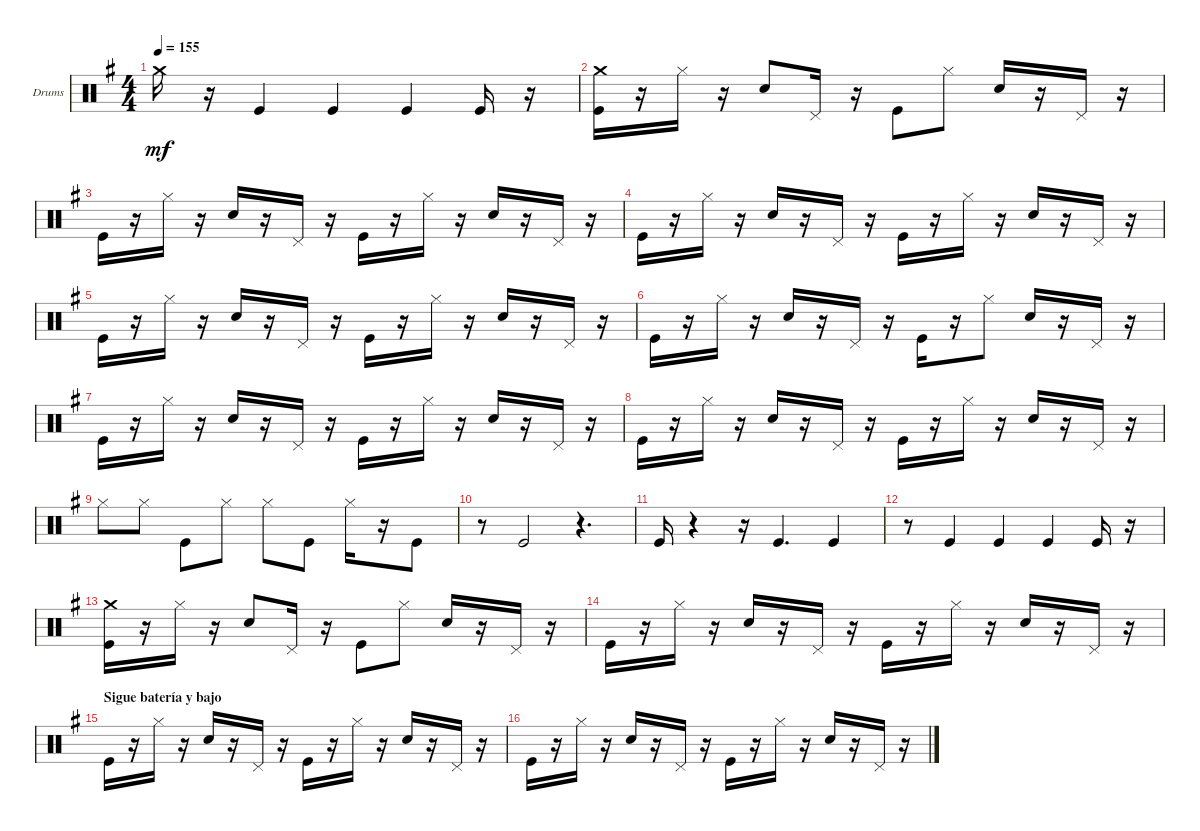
\bracketExtendMode groupsimilarinstruments
\firstSystemTrackNameOrientation horizontal
\otherSystemsTrackNameOrientation horizontal
\track ("Drumkit" "Drums") {instrument percussion}
\staff {score}
\articulation defaults
\ts (4 4)
\tempo 155
\clef neutral
\scale
0.333333
\ks g "Crash medium (hit)".16{dy mf}
r.16 "Kick (hit)".4 "Kick (hit)".4 "Kick (hit)".4 "Kick (hit)".16 r.16 |
\scale
0.333333 ("Crash medium (hit)" "Kick (hit)").16 r.16 "Hi-Hat (closed)".16 r.16 "Snare (hit) 2".8 "Pedal Hi-Hat (hit)".16 r.16 "Kick (hit)".8 "Hi-Hat (closed)".8 "Snare (hit) 2".16 r.16 "Pedal Hi-Hat (hit)".16 r.16 |
\scale
0.333333 "Kick (hit)".16 r.16 "Hi-Hat (closed)".16 r.16 "Snare (hit) 2".16 r.16 "Pedal Hi-Hat (hit)".16 r.16 "Kick (hit)".16 r.16 "Hi-Hat (closed)".16 r.16 "Snare (hit) 2".16 r.16 "Pedal Hi-Hat (hit)".16 r.16 |
\scale
0.333333 "Kick (hit)".16 r.16 "Hi-Hat (closed)".16 r.16 "Snare (hit) 2".16 r.16 "Pedal Hi-Hat (hit)".16 r.16 "Kick (hit)".16 r.16 "Hi-Hat (closed)".16 r.16 "Snare (hit) 2".16 r.16 "Pedal Hi-Hat (hit)".16 r.16 |
\scale
0.333333 "Kick (hit)".16 r.16 "Hi-Hat (closed)".16 r.16 "Snare (hit) 2".16 r.16 "Pedal Hi-Hat (hit)".16 r.16 "Kick (hit)".16 r.16 "Hi-Hat (closed)".16 r.16 "Snare (hit) 2".16 r.16 "Pedal Hi-Hat (hit)".16 r.16 |
\scale
0.333333 "Kick (hit)".16 r.16 "Hi-Hat (closed)".16 r.16 "Snare (hit) 2".16 r.16 "Pedal Hi-Hat (hit)".16 r.16 "Kick (hit)".16 r.16 "Hi-Hat (closed)".8 "Snare (hit) 2".16 r.16 "Pedal Hi-Hat (hit)".16 r.16 |
\scale
0.333333 "Kick (hit)".16 r.16 "Hi-Hat (closed)".16 r.16 "Snare (hit) 2".16 r.16 "Pedal Hi-Hat (hit)".16 r.16 "Kick (hit)".16 r.16 "Hi-Hat (closed)".16 r.16 "Snare (hit) 2".16 r.16 "Pedal Hi-Hat (hit)".16 r.16 |
\scale
0.333333 "Kick (hit)".16 r.16 "Hi-Hat (closed)".16 r.16 "Snare (hit) 2".16 r.16 "Pedal Hi-Hat (hit)".16 r.16 "Kick (hit)".16 r.16 "Hi-Hat (closed)".16 r.16 "Snare (hit) 2".16 r.16 "Pedal Hi-Hat (hit)".16 r.16 |
\scale
0.333333 "Hi-Hat (closed)".8 "Hi-Hat (closed)".8 "Kick (hit)".8 "Hi-Hat (closed)".8 "Hi-Hat (closed)".8 "Kick (hit)".8 "Hi-Hat (closed)".16 r.16 "Kick (hit)".8 |
\scale
0.333333 r.8 "Kick (hit)".2 r.4{d} |
\scale
0.333333 "Kick (hit)".16 r.4 r.16 "Kick (hit)".4{d} "Kick (hit)".4 |
\scale
0.333333 r.8 "Kick (hit)".4 "Kick (hit)".4 "Kick (hit)".4 "Kick (hit)".16 r.16 |
\scale
0.333333 ("Crash medium (hit)" "Kick (hit)").16 r.16 "Hi-Hat (closed)".16 r.16 "Snare (hit) 2".8 "Pedal Hi-Hat (hit)".16 r.16 "Kick (hit)".8 "Hi-Hat (closed)".8 "Snare (hit) 2".16 r.16 "Pedal Hi-Hat (hit)".16 r.16 |
\scale
0.333333 "Kick (hit)".16 r.16 "Hi-Hat (closed)".16 r.16 "Snare (hit) 2".16 r.16 "Pedal Hi-Hat (hit)".16 r.16 "Kick (hit)".16 r.16 "Hi-Hat (closed)".16 r.16 "Snare (hit) 2".16 r.16 "Pedal Hi-Hat (hit)".16 r.16 |
\section ("" "Sigue batería y bajo")
\scale
0.333333 "Kick (hit)".16 r.16 "Hi-Hat (closed)".16 r.16 "Snare (hit) 2".16 r.16 "Pedal Hi-Hat (hit)".16 r.16 "Kick (hit)".16 r.16 "Hi-Hat (closed)".16 r.16 "Snare (hit) 2".16 r.16 "Pedal Hi-Hat (hit)".16 r.16 |
\scale
0.333333 "Kick (hit)".16 r.16 "Hi-Hat (closed)".16 r.16 "Snare (hit) 2".16 r.16 "Pedal Hi-Hat (hit)".16 r.16 "Kick (hit)".16 r.16 "Hi-Hat (closed)".16 r.16 "Snare (hit) 2".16 r.16 "Pedal Hi-Hat (hit)".16 r.16
